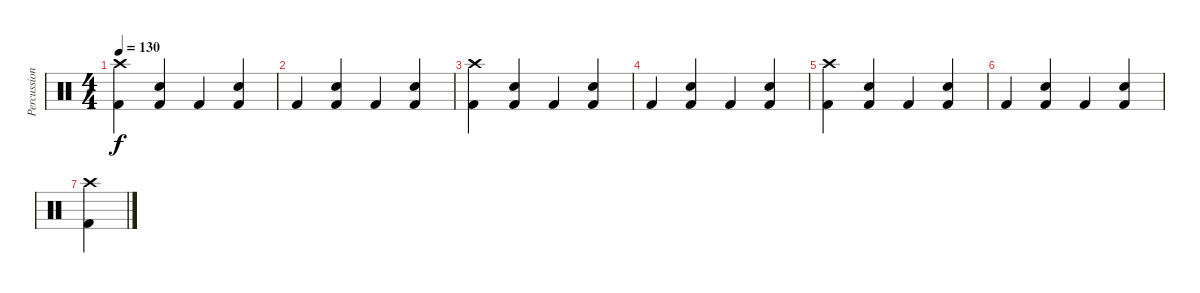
\track ("Percussion" "Percussion") {instrument percussion}
\staff {score}
\articulation defaults
\ts (4 4)
\tempo 130
\clef neutral
\ks c
("Crash high (hit)" "Kick (hit) 2").4{dy f} ("Kick (hit) 2" "Snare (hit) 2").4 "Kick (hit) 2".4 ("Kick (hit) 2" "Snare (hit) 2").4 |
"Kick (hit) 2".4 ("Kick (hit) 2" "Snare (hit) 2").4 "Kick (hit) 2".4 ("Kick (hit) 2" "Snare (hit) 2").4 |
("Crash high (hit)" "Kick (hit) 2").4 ("Kick (hit) 2" "Snare (hit) 2").4 "Kick (hit) 2".4 ("Kick (hit) 2" "Snare (hit) 2").4 |
"Kick (hit) 2".4 ("Kick (hit) 2" "Snare (hit) 2").4 "Kick (hit) 2".4 ("Kick (hit) 2" "Snare (hit) 2").4 |
("Crash high (hit)" "Kick (hit) 2").4 ("Kick (hit) 2" "Snare (hit) 2").4 "Kick (hit) 2".4 ("Kick (hit) 2" "Snare (hit) 2").4 |
"Kick (hit) 2".4 ("Kick (hit) 2" "Snare (hit) 2").4 "Kick (hit) 2".4 ("Kick (hit) 2" "Snare (hit) 2").4 |
("Crash high (hit)" "Kick (hit) 2").4
